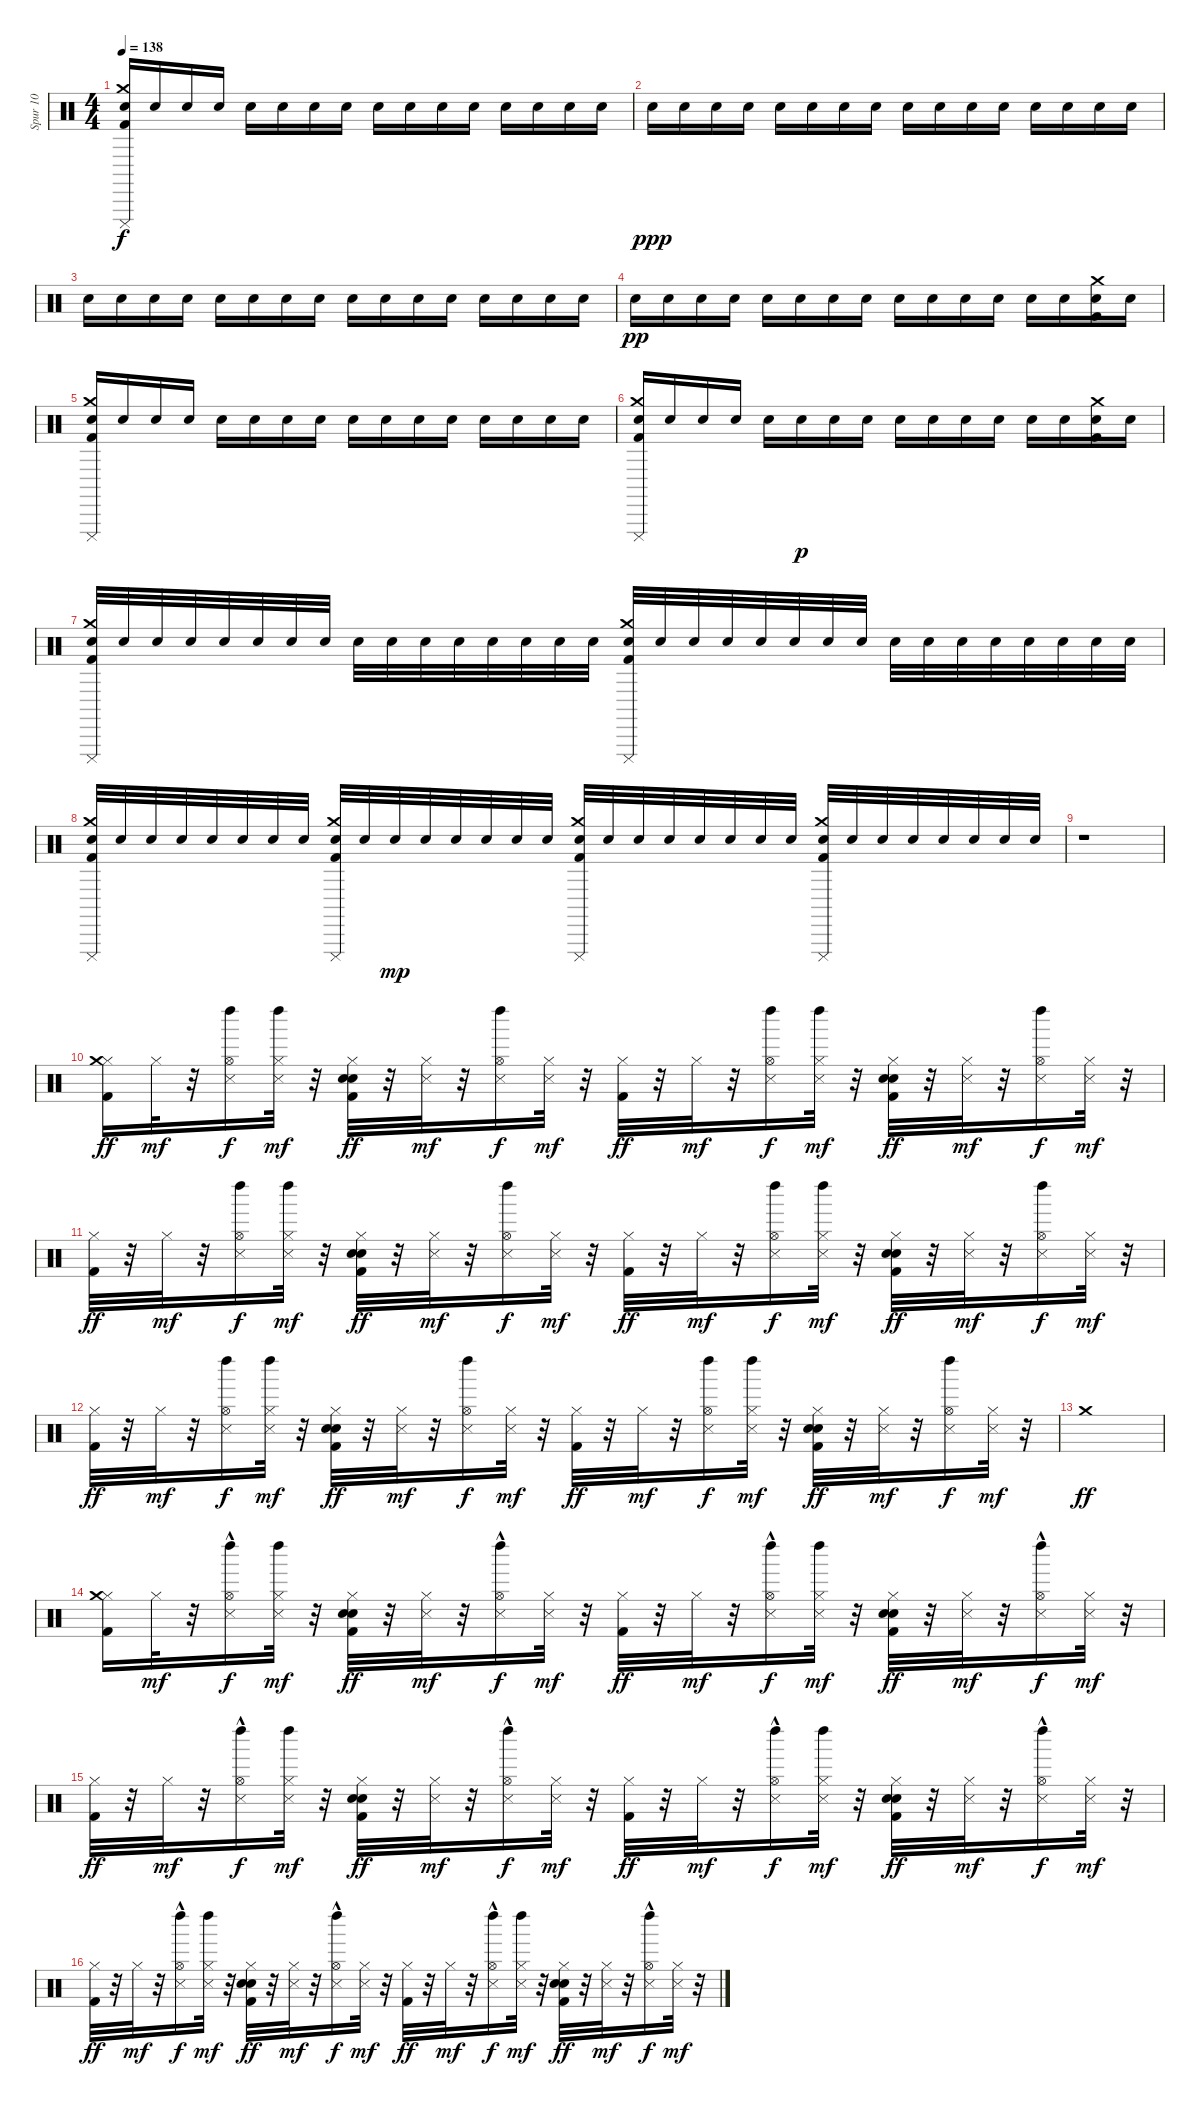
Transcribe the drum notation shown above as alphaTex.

\track ("Spur 10" "Spur 10") {instrument percussion}
\staff {score}
\articulation defaults
\ts (4 4)
\tempo 138
\clef neutral
\ks c
("Cuica (mute)" "Crash medium (hit)" "Kick (hit) 2" "Electric Snare (hit)").16{dy f} "Electric Snare (hit)".16 "Electric Snare (hit)".16 "Electric Snare (hit)".16 "Electric Snare (hit)".16 "Electric Snare (hit)".16 "Electric Snare (hit)".16 "Electric Snare (hit)".16 "Electric Snare (hit)".16 "Electric Snare (hit)".16 "Electric Snare (hit)".16 "Electric Snare (hit)".16 "Electric Snare (hit)".16 "Electric Snare (hit)".16 "Electric Snare (hit)".16 "Electric Snare (hit)".16 |
"Electric Snare (hit)".16{dy ppp} "Electric Snare (hit)".16 "Electric Snare (hit)".16 "Electric Snare (hit)".16 "Electric Snare (hit)".16 "Electric Snare (hit)".16 "Electric Snare (hit)".16 "Electric Snare (hit)".16 "Electric Snare (hit)".16 "Electric Snare (hit)".16 "Electric Snare (hit)".16 "Electric Snare (hit)".16 "Electric Snare (hit)".16 "Electric Snare (hit)".16 "Electric Snare (hit)".16 "Electric Snare (hit)".16 |
"Electric Snare (hit)".16 "Electric Snare (hit)".16 "Electric Snare (hit)".16 "Electric Snare (hit)".16 "Electric Snare (hit)".16 "Electric Snare (hit)".16 "Electric Snare (hit)".16 "Electric Snare (hit)".16 "Electric Snare (hit)".16 "Electric Snare (hit)".16 "Electric Snare (hit)".16 "Electric Snare (hit)".16 "Electric Snare (hit)".16 "Electric Snare (hit)".16 "Electric Snare (hit)".16 "Electric Snare (hit)".16 |
"Electric Snare (hit)".16{dy pp} "Electric Snare (hit)".16 "Electric Snare (hit)".16 "Electric Snare (hit)".16 "Electric Snare (hit)".16 "Electric Snare (hit)".16 "Electric Snare (hit)".16 "Electric Snare (hit)".16 "Electric Snare (hit)".16 "Electric Snare (hit)".16 "Electric Snare (hit)".16 "Electric Snare (hit)".16 "Electric Snare (hit)".16 "Electric Snare (hit)".16 ("Crash medium (hit)" "Kick (hit) 2" "Electric Snare (hit)").16 "Electric Snare (hit)".16 |
("Cuica (mute)" "Crash medium (hit)" "Kick (hit) 2" "Electric Snare (hit)").16 "Electric Snare (hit)".16 "Electric Snare (hit)".16 "Electric Snare (hit)".16 "Electric Snare (hit)".16 "Electric Snare (hit)".16 "Electric Snare (hit)".16 "Electric Snare (hit)".16 "Electric Snare (hit)".16 "Electric Snare (hit)".16 "Electric Snare (hit)".16 "Electric Snare (hit)".16 "Electric Snare (hit)".16 "Electric Snare (hit)".16 "Electric Snare (hit)".16 "Electric Snare (hit)".16 |
("Cuica (mute)" "Crash medium (hit)" "Kick (hit) 2" "Electric Snare (hit)").16 "Electric Snare (hit)".16 "Electric Snare (hit)".16 "Electric Snare (hit)".16 "Electric Snare (hit)".16 "Electric Snare (hit)".16{dy p} "Electric Snare (hit)".16 "Electric Snare (hit)".16 "Electric Snare (hit)".16 "Electric Snare (hit)".16 "Electric Snare (hit)".16 "Electric Snare (hit)".16 "Electric Snare (hit)".16 "Electric Snare (hit)".16 ("Crash medium (hit)" "Kick (hit) 2" "Electric Snare (hit)").16 "Electric Snare (hit)".16 |
("Cuica (mute)" "Crash medium (hit)" "Kick (hit) 2" "Electric Snare (hit)").32 "Electric Snare (hit)".32 "Electric Snare (hit)".32 "Electric Snare (hit)".32 "Electric Snare (hit)".32 "Electric Snare (hit)".32 "Electric Snare (hit)".32 "Electric Snare (hit)".32 "Electric Snare (hit)".32 "Electric Snare (hit)".32 "Electric Snare (hit)".32 "Electric Snare (hit)".32 "Electric Snare (hit)".32 "Electric Snare (hit)".32 "Electric Snare (hit)".32 "Electric Snare (hit)".32 ("Cuica (mute)" "Crash medium (hit)" "Kick (hit) 2" "Electric Snare (hit)").32 "Electric Snare (hit)".32 "Electric Snare (hit)".32 "Electric Snare (hit)".32 "Electric Snare (hit)".32 "Electric Snare (hit)".32 "Electric Snare (hit)".32 "Electric Snare (hit)".32 "Electric Snare (hit)".32 "Electric Snare (hit)".32 "Electric Snare (hit)".32 "Electric Snare (hit)".32 "Electric Snare (hit)".32 "Electric Snare (hit)".32 "Electric Snare (hit)".32 "Electric Snare (hit)".32 |
("Cuica (mute)" "Crash medium (hit)" "Kick (hit) 2" "Electric Snare (hit)").32 "Electric Snare (hit)".32 "Electric Snare (hit)".32 "Electric Snare (hit)".32 "Electric Snare (hit)".32 "Electric Snare (hit)".32 "Electric Snare (hit)".32 "Electric Snare (hit)".32 ("Cuica (mute)" "Crash medium (hit)" "Kick (hit) 2" "Electric Snare (hit)").32 "Electric Snare (hit)".32 "Electric Snare (hit)".32{dy mp} "Electric Snare (hit)".32 "Electric Snare (hit)".32 "Electric Snare (hit)".32 "Electric Snare (hit)".32 "Electric Snare (hit)".32 ("Cuica (mute)" "Crash medium (hit)" "Kick (hit) 2" "Electric Snare (hit)").32 "Electric Snare (hit)".32 "Electric Snare (hit)".32 "Electric Snare (hit)".32 "Electric Snare (hit)".32 "Electric Snare (hit)".32 "Electric Snare (hit)".32 "Electric Snare (hit)".32 ("Cuica (mute)" "Crash medium (hit)" "Kick (hit) 2" "Electric Snare (hit)").32 "Electric Snare (hit)".32 "Electric Snare (hit)".32 "Electric Snare (hit)".32 "Electric Snare (hit)".32 "Electric Snare (hit)".32 "Electric Snare (hit)".32 "Electric Snare (hit)".32 |
r.1 |
("Hi-Hat (closed)" "Crash medium (hit)" "Kick (hit) 2").16{dy ff} "Hi-Hat (closed)".32{dy mf} r.32 ("Snare (side stick) 3" "Hi-Hat (open)" "Left Maraca (hit)").16{dy f} ("Hi-Hat (closed)" "Snare (side stick) 3" "Left Maraca (hit)").32{dy mf} r.32 ("Hand Clap (hit)" "Hi-Hat (closed)" "Kick (hit) 2" "Electric Snare (hit)").32{dy ff} r.32 ("Hi-Hat (closed)" "Snare (side stick) 3").32{dy mf} r.32 ("Snare (side stick) 3" "Hi-Hat (open)" "Left Maraca (hit)").16{dy f} ("Hi-Hat (closed)" "Snare (side stick) 3").32{dy mf} r.32 ("Hi-Hat (closed)" "Kick (hit) 2").32{dy ff} r.32 "Hi-Hat (closed)".32{dy mf} r.32 ("Snare (side stick) 3" "Hi-Hat (open)" "Left Maraca (hit)").16{dy f} ("Hi-Hat (closed)" "Snare (side stick) 3" "Left Maraca (hit)").32{dy mf} r.32 ("Hand Clap (hit)" "Hi-Hat (closed)" "Kick (hit) 2" "Electric Snare (hit)").32{dy ff} r.32 ("Hi-Hat (closed)" "Snare (side stick) 3").32{dy mf} r.32 ("Snare (side stick) 3" "Hi-Hat (open)" "Left Maraca (hit)").16{dy f} ("Hi-Hat (closed)" "Snare (side stick) 3").32{dy mf} r.32 |
("Hi-Hat (closed)" "Kick (hit) 2").32{dy ff} r.32 "Hi-Hat (closed)".32{dy mf} r.32 ("Snare (side stick) 3" "Hi-Hat (open)" "Left Maraca (hit)").16{dy f} ("Hi-Hat (closed)" "Snare (side stick) 3" "Left Maraca (hit)").32{dy mf} r.32 ("Hand Clap (hit)" "Hi-Hat (closed)" "Kick (hit) 2" "Electric Snare (hit)").32{dy ff} r.32 ("Hi-Hat (closed)" "Snare (side stick) 3").32{dy mf} r.32 ("Snare (side stick) 3" "Hi-Hat (open)" "Left Maraca (hit)").16{dy f} ("Hi-Hat (closed)" "Snare (side stick) 3").32{dy mf} r.32 ("Hi-Hat (closed)" "Kick (hit) 2").32{dy ff} r.32 "Hi-Hat (closed)".32{dy mf} r.32 ("Snare (side stick) 3" "Hi-Hat (open)" "Left Maraca (hit)").16{dy f} ("Hi-Hat (closed)" "Snare (side stick) 3" "Left Maraca (hit)").32{dy mf} r.32 ("Hand Clap (hit)" "Hi-Hat (closed)" "Kick (hit) 2" "Electric Snare (hit)").32{dy ff} r.32 ("Hi-Hat (closed)" "Snare (side stick) 3").32{dy mf} r.32 ("Snare (side stick) 3" "Hi-Hat (open)" "Left Maraca (hit)").16{dy f} ("Hi-Hat (closed)" "Snare (side stick) 3").32{dy mf} r.32 |
("Hi-Hat (closed)" "Kick (hit) 2").32{dy ff} r.32 "Hi-Hat (closed)".32{dy mf} r.32 ("Snare (side stick) 3" "Hi-Hat (open)" "Left Maraca (hit)").16{dy f} ("Hi-Hat (closed)" "Snare (side stick) 3" "Left Maraca (hit)").32{dy mf} r.32 ("Hand Clap (hit)" "Hi-Hat (closed)" "Kick (hit) 2" "Electric Snare (hit)").32{dy ff} r.32 ("Hi-Hat (closed)" "Snare (side stick) 3").32{dy mf} r.32 ("Snare (side stick) 3" "Hi-Hat (open)" "Left Maraca (hit)").16{dy f} ("Hi-Hat (closed)" "Snare (side stick) 3").32{dy mf} r.32 ("Hi-Hat (closed)" "Kick (hit) 2").32{dy ff} r.32 "Hi-Hat (closed)".32{dy mf} r.32 ("Snare (side stick) 3" "Hi-Hat (open)" "Left Maraca (hit)").16{dy f} ("Hi-Hat (closed)" "Snare (side stick) 3" "Left Maraca (hit)").32{dy mf} r.32 ("Hand Clap (hit)" "Hi-Hat (closed)" "Kick (hit) 2" "Electric Snare (hit)").32{dy ff} r.32 ("Hi-Hat (closed)" "Snare (side stick) 3").32{dy mf} r.32 ("Snare (side stick) 3" "Hi-Hat (open)" "Left Maraca (hit)").16{dy f} ("Hi-Hat (closed)" "Snare (side stick) 3").32{dy mf} r.32 |
"Crash medium (hit)".1{dy ff} |
("Hi-Hat (closed)" "Crash medium (hit)" "Kick (hit) 2").16 "Hi-Hat (closed)".32{dy mf} r.32 ("Snare (side stick) 3" "Hi-Hat (open)"{hac} "Left Maraca (hit)").16{dy f} ("Hi-Hat (closed)" "Snare (side stick) 3" "Left Maraca (hit)").32{dy mf} r.32 ("Hand Clap (hit)" "Hi-Hat (closed)" "Kick (hit) 2" "Electric Snare (hit)").32{dy ff} r.32 ("Hi-Hat (closed)" "Snare (side stick) 3").32{dy mf} r.32 ("Snare (side stick) 3" "Hi-Hat (open)"{hac} "Left Maraca (hit)").16{dy f} ("Hi-Hat (closed)" "Snare (side stick) 3").32{dy mf} r.32 ("Hi-Hat (closed)" "Kick (hit) 2").32{dy ff} r.32 "Hi-Hat (closed)".32{dy mf} r.32 ("Snare (side stick) 3" "Hi-Hat (open)"{hac} "Left Maraca (hit)").16{dy f} ("Hi-Hat (closed)" "Snare (side stick) 3" "Left Maraca (hit)").32{dy mf} r.32 ("Hand Clap (hit)" "Hi-Hat (closed)" "Kick (hit) 2" "Electric Snare (hit)").32{dy ff} r.32 ("Hi-Hat (closed)" "Snare (side stick) 3").32{dy mf} r.32 ("Snare (side stick) 3" "Hi-Hat (open)"{hac} "Left Maraca (hit)").16{dy f} ("Hi-Hat (closed)" "Snare (side stick) 3").32{dy mf} r.32 |
("Hi-Hat (closed)" "Kick (hit) 2").32{dy ff} r.32 "Hi-Hat (closed)".32{dy mf} r.32 ("Snare (side stick) 3" "Hi-Hat (open)"{hac} "Left Maraca (hit)").16{dy f} ("Hi-Hat (closed)" "Snare (side stick) 3" "Left Maraca (hit)").32{dy mf} r.32 ("Hand Clap (hit)" "Hi-Hat (closed)" "Kick (hit) 2" "Electric Snare (hit)").32{dy ff} r.32 ("Hi-Hat (closed)" "Snare (side stick) 3").32{dy mf} r.32 ("Snare (side stick) 3" "Hi-Hat (open)"{hac} "Left Maraca (hit)").16{dy f} ("Hi-Hat (closed)" "Snare (side stick) 3").32{dy mf} r.32 ("Hi-Hat (closed)" "Kick (hit) 2").32{dy ff} r.32 "Hi-Hat (closed)".32{dy mf} r.32 ("Snare (side stick) 3" "Hi-Hat (open)"{hac} "Left Maraca (hit)").16{dy f} ("Hi-Hat (closed)" "Snare (side stick) 3" "Left Maraca (hit)").32{dy mf} r.32 ("Hand Clap (hit)" "Hi-Hat (closed)" "Kick (hit) 2" "Electric Snare (hit)").32{dy ff} r.32 ("Hi-Hat (closed)" "Snare (side stick) 3").32{dy mf} r.32 ("Snare (side stick) 3" "Hi-Hat (open)"{hac} "Left Maraca (hit)").16{dy f} ("Hi-Hat (closed)" "Snare (side stick) 3").32{dy mf} r.32 |
("Hi-Hat (closed)" "Kick (hit) 2").32{dy ff} r.32 "Hi-Hat (closed)".32{dy mf} r.32 ("Snare (side stick) 3" "Hi-Hat (open)"{hac} "Left Maraca (hit)").16{dy f} ("Hi-Hat (closed)" "Snare (side stick) 3" "Left Maraca (hit)").32{dy mf} r.32 ("Hand Clap (hit)" "Hi-Hat (closed)" "Kick (hit) 2" "Electric Snare (hit)").32{dy ff} r.32 ("Hi-Hat (closed)" "Snare (side stick) 3").32{dy mf} r.32 ("Snare (side stick) 3" "Hi-Hat (open)"{hac} "Left Maraca (hit)").16{dy f} ("Hi-Hat (closed)" "Snare (side stick) 3").32{dy mf} r.32 ("Hi-Hat (closed)" "Kick (hit) 2").32{dy ff} r.32 "Hi-Hat (closed)".32{dy mf} r.32 ("Snare (side stick) 3" "Hi-Hat (open)"{hac} "Left Maraca (hit)").16{dy f} ("Hi-Hat (closed)" "Snare (side stick) 3" "Left Maraca (hit)").32{dy mf} r.32 ("Hand Clap (hit)" "Hi-Hat (closed)" "Kick (hit) 2" "Electric Snare (hit)").32{dy ff} r.32 ("Hi-Hat (closed)" "Snare (side stick) 3").32{dy mf} r.32 ("Snare (side stick) 3" "Hi-Hat (open)"{hac} "Left Maraca (hit)").16{dy f} ("Hi-Hat (closed)" "Snare (side stick) 3").32{dy mf} r.32
